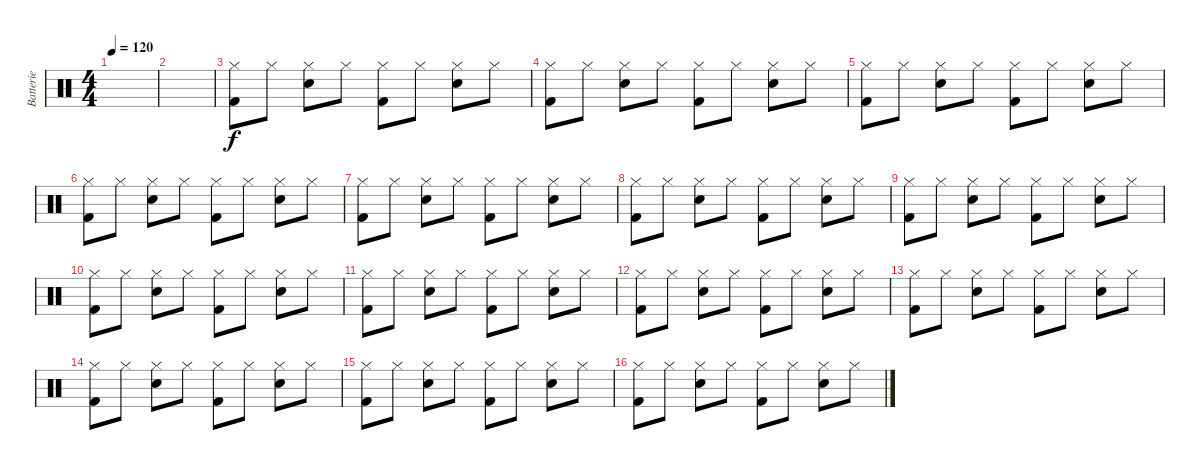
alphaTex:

\track ("Batterie" "Batterie") {instrument percussion}
\staff {score}
\articulation defaults
\ts (4 4)
\tempo 120
\clef neutral
\ks c
|
|
("Hi-Hat (closed)" "Kick (hit) 2").8 "Hi-Hat (closed)".8 ("Hi-Hat (closed)" "Electric Snare (hit)").8 "Hi-Hat (closed)".8 ("Hi-Hat (closed)" "Kick (hit) 2").8 "Hi-Hat (closed)".8 ("Hi-Hat (closed)" "Electric Snare (hit)").8 "Hi-Hat (closed)".8 |
("Hi-Hat (closed)" "Kick (hit) 2").8 "Hi-Hat (closed)".8 ("Hi-Hat (closed)" "Electric Snare (hit)").8 "Hi-Hat (closed)".8 ("Hi-Hat (closed)" "Kick (hit) 2").8 "Hi-Hat (closed)".8 ("Hi-Hat (closed)" "Electric Snare (hit)").8 "Hi-Hat (closed)".8 |
("Hi-Hat (closed)" "Kick (hit) 2").8 "Hi-Hat (closed)".8 ("Hi-Hat (closed)" "Electric Snare (hit)").8 "Hi-Hat (closed)".8 ("Hi-Hat (closed)" "Kick (hit) 2").8 "Hi-Hat (closed)".8 ("Hi-Hat (closed)" "Electric Snare (hit)").8 "Hi-Hat (closed)".8 |
("Hi-Hat (closed)" "Kick (hit) 2").8 "Hi-Hat (closed)".8 ("Hi-Hat (closed)" "Electric Snare (hit)").8 "Hi-Hat (closed)".8 ("Hi-Hat (closed)" "Kick (hit) 2").8 "Hi-Hat (closed)".8 ("Hi-Hat (closed)" "Electric Snare (hit)").8 "Hi-Hat (closed)".8 |
("Hi-Hat (closed)" "Kick (hit) 2").8 "Hi-Hat (closed)".8 ("Hi-Hat (closed)" "Electric Snare (hit)").8 "Hi-Hat (closed)".8 ("Hi-Hat (closed)" "Kick (hit) 2").8 "Hi-Hat (closed)".8 ("Hi-Hat (closed)" "Electric Snare (hit)").8 "Hi-Hat (closed)".8 |
("Hi-Hat (closed)" "Kick (hit) 2").8 "Hi-Hat (closed)".8 ("Hi-Hat (closed)" "Electric Snare (hit)").8 "Hi-Hat (closed)".8 ("Hi-Hat (closed)" "Kick (hit) 2").8 "Hi-Hat (closed)".8 ("Hi-Hat (closed)" "Electric Snare (hit)").8 "Hi-Hat (closed)".8 |
("Hi-Hat (closed)" "Kick (hit) 2").8 "Hi-Hat (closed)".8 ("Hi-Hat (closed)" "Electric Snare (hit)").8 "Hi-Hat (closed)".8 ("Hi-Hat (closed)" "Kick (hit) 2").8 "Hi-Hat (closed)".8 ("Hi-Hat (closed)" "Electric Snare (hit)").8 "Hi-Hat (closed)".8 |
("Hi-Hat (closed)" "Kick (hit) 2").8 "Hi-Hat (closed)".8 ("Hi-Hat (closed)" "Electric Snare (hit)").8 "Hi-Hat (closed)".8 ("Hi-Hat (closed)" "Kick (hit) 2").8 "Hi-Hat (closed)".8 ("Hi-Hat (closed)" "Electric Snare (hit)").8 "Hi-Hat (closed)".8 |
("Hi-Hat (closed)" "Kick (hit) 2").8 "Hi-Hat (closed)".8 ("Hi-Hat (closed)" "Electric Snare (hit)").8 "Hi-Hat (closed)".8 ("Hi-Hat (closed)" "Kick (hit) 2").8 "Hi-Hat (closed)".8 ("Hi-Hat (closed)" "Electric Snare (hit)").8 "Hi-Hat (closed)".8 |
("Hi-Hat (closed)" "Kick (hit) 2").8 "Hi-Hat (closed)".8 ("Hi-Hat (closed)" "Electric Snare (hit)").8 "Hi-Hat (closed)".8 ("Hi-Hat (closed)" "Kick (hit) 2").8 "Hi-Hat (closed)".8 ("Hi-Hat (closed)" "Electric Snare (hit)").8 "Hi-Hat (closed)".8 |
("Hi-Hat (closed)" "Kick (hit) 2").8 "Hi-Hat (closed)".8 ("Hi-Hat (closed)" "Electric Snare (hit)").8 "Hi-Hat (closed)".8 ("Hi-Hat (closed)" "Kick (hit) 2").8 "Hi-Hat (closed)".8 ("Hi-Hat (closed)" "Electric Snare (hit)").8 "Hi-Hat (closed)".8 |
("Hi-Hat (closed)" "Kick (hit) 2").8 "Hi-Hat (closed)".8 ("Hi-Hat (closed)" "Electric Snare (hit)").8 "Hi-Hat (closed)".8 ("Hi-Hat (closed)" "Kick (hit) 2").8 "Hi-Hat (closed)".8 ("Hi-Hat (closed)" "Electric Snare (hit)").8 "Hi-Hat (closed)".8 |
("Hi-Hat (closed)" "Kick (hit) 2").8 "Hi-Hat (closed)".8 ("Hi-Hat (closed)" "Electric Snare (hit)").8 "Hi-Hat (closed)".8 ("Hi-Hat (closed)" "Kick (hit) 2").8 "Hi-Hat (closed)".8 ("Hi-Hat (closed)" "Electric Snare (hit)").8 "Hi-Hat (closed)".8 |
("Hi-Hat (closed)" "Kick (hit) 2").8 "Hi-Hat (closed)".8 ("Hi-Hat (closed)" "Electric Snare (hit)").8 "Hi-Hat (closed)".8 ("Hi-Hat (closed)" "Kick (hit) 2").8 "Hi-Hat (closed)".8 ("Hi-Hat (closed)" "Electric Snare (hit)").8 "Hi-Hat (closed)".8
